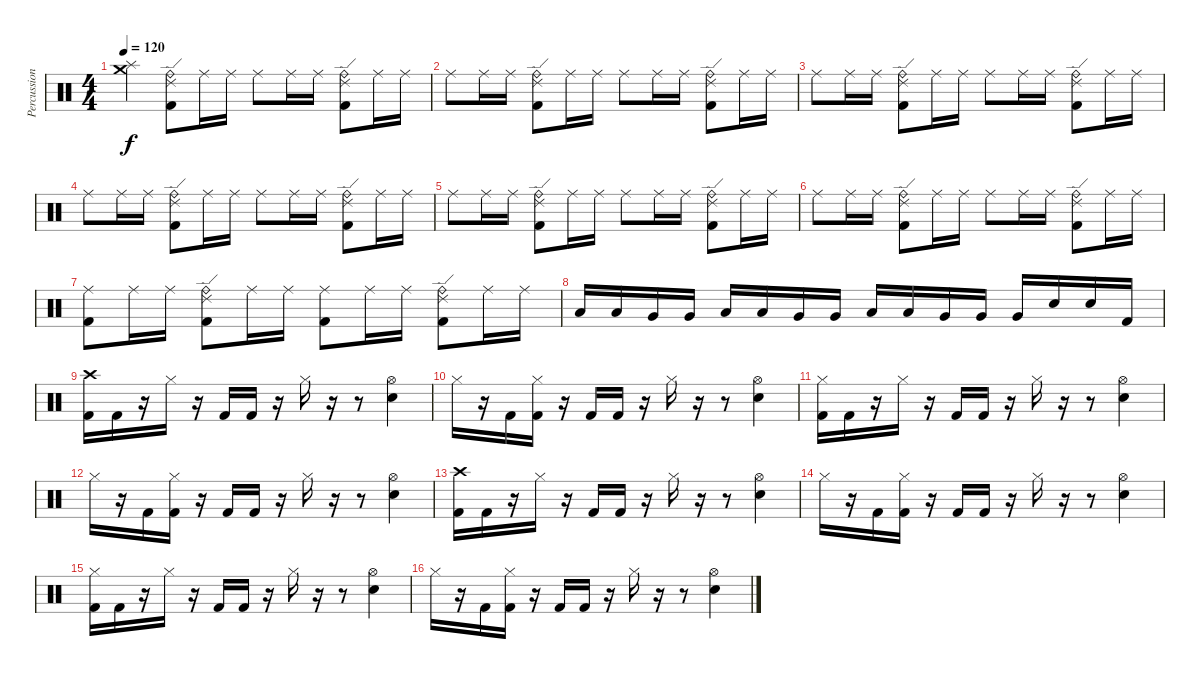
\track ("Percussion" "Percussion") {instrument percussion}
\staff {score}
\articulation defaults
\ts (4 4)
\tempo 120
\clef neutral
\ks c
("Crash medium (hit)" "Splash (hit)").4{dy f} ("Ride (edge) 2" "Ride (bell)" "Kick (hit) 2").8 "Ride (middle)".16 "Ride (middle)".16 "Ride (middle)".8 "Ride (middle)".16 "Ride (middle)".16 ("Ride (edge) 2" "Ride (bell)" "Kick (hit) 2").8 "Ride (middle)".16 "Ride (middle)".16 |
"Ride (middle)".8 "Ride (middle)".16 "Ride (middle)".16 ("Ride (edge) 2" "Ride (bell)" "Kick (hit) 2").8 "Ride (middle)".16 "Ride (middle)".16 "Ride (middle)".8 "Ride (middle)".16 "Ride (middle)".16 ("Ride (edge) 2" "Ride (bell)" "Kick (hit) 2").8 "Ride (middle)".16 "Ride (middle)".16 |
"Ride (middle)".8 "Ride (middle)".16 "Ride (middle)".16 ("Ride (edge) 2" "Ride (bell)" "Kick (hit) 2").8 "Ride (middle)".16 "Ride (middle)".16 "Ride (middle)".8 "Ride (middle)".16 "Ride (middle)".16 ("Ride (edge) 2" "Ride (bell)" "Kick (hit) 2").8 "Ride (middle)".16 "Ride (middle)".16 |
"Ride (middle)".8 "Ride (middle)".16 "Ride (middle)".16 ("Ride (edge) 2" "Ride (bell)" "Kick (hit) 2").8 "Ride (middle)".16 "Ride (middle)".16 "Ride (middle)".8 "Ride (middle)".16 "Ride (middle)".16 ("Ride (edge) 2" "Ride (bell)" "Kick (hit) 2").8 "Ride (middle)".16 "Ride (middle)".16 |
"Ride (middle)".8 "Ride (middle)".16 "Ride (middle)".16 ("Ride (edge) 2" "Ride (bell)" "Kick (hit) 2").8 "Ride (middle)".16 "Ride (middle)".16 "Ride (middle)".8 "Ride (middle)".16 "Ride (middle)".16 ("Ride (edge) 2" "Ride (bell)" "Kick (hit) 2").8 "Ride (middle)".16 "Ride (middle)".16 |
"Ride (middle)".8 "Ride (middle)".16 "Ride (middle)".16 ("Ride (edge) 2" "Ride (bell)" "Kick (hit) 2").8 "Ride (middle)".16 "Ride (middle)".16 "Ride (middle)".8 "Ride (middle)".16 "Ride (middle)".16 ("Ride (edge) 2" "Ride (bell)" "Kick (hit) 2").8 "Ride (middle)".16 "Ride (middle)".16 |
("Ride (middle)" "Kick (hit) 2").8 "Ride (middle)".16 "Ride (middle)".16 ("Ride (edge) 2" "Ride (bell)" "Kick (hit) 2").8 "Ride (middle)".16 "Ride (middle)".16 ("Ride (middle)" "Kick (hit) 2").8 "Ride (middle)".16 "Ride (middle)".16 ("Ride (edge) 2" "Ride (bell)" "Kick (hit) 2").8 "Ride (middle)".16 "Ride (middle)".16 |
"Low Tom (hit)".16 "Low Tom (hit)".16 "Very Low Tom (hit)".16 "Very Low Tom (hit)".16 "Low Floor Tom (hit)".16 "Low Floor Tom (hit)".16 "Very Low Tom (hit)".16 "Very Low Tom (hit)".16 "Low Floor Tom (hit)".16 "Low Floor Tom (hit)".16 "Very Low Tom (hit)".16 "Very Low Tom (hit)".16 "Very Low Tom (hit)".16 "Electric Snare (hit)".16 "Electric Snare (hit)".16 "Kick (hit) 2".16 |
("Crash high (hit)" "Kick (hit) 2").16 "Kick (hit) 2".16 r.16 "Hi-Hat (closed)".16 r.16 "Kick (hit) 2".16 "Kick (hit) 2".16 r.16 "Hi-Hat (closed)".16 r.16 r.8 ("Hi-Hat (open)" "Electric Snare (hit)").4 |
"Hi-Hat (closed)".16 r.16 "Kick (hit) 2".16 ("Hi-Hat (closed)" "Kick (hit) 2").16 r.16 "Kick (hit) 2".16 "Kick (hit) 2".16 r.16 "Hi-Hat (closed)".16 r.16 r.8 ("Hi-Hat (open)" "Electric Snare (hit)").4 |
("Hi-Hat (closed)" "Kick (hit) 2").16 "Kick (hit) 2".16 r.16 "Hi-Hat (closed)".16 r.16 "Kick (hit) 2".16 "Kick (hit) 2".16 r.16 "Hi-Hat (closed)".16 r.16 r.8 ("Hi-Hat (open)" "Electric Snare (hit)").4 |
"Hi-Hat (closed)".16 r.16 "Kick (hit) 2".16 ("Hi-Hat (closed)" "Kick (hit) 2").16 r.16 "Kick (hit) 2".16 "Kick (hit) 2".16 r.16 "Hi-Hat (closed)".16 r.16 r.8 ("Hi-Hat (open)" "Electric Snare (hit)").4 |
("Crash high (hit)" "Kick (hit) 2").16 "Kick (hit) 2".16 r.16 "Hi-Hat (closed)".16 r.16 "Kick (hit) 2".16 "Kick (hit) 2".16 r.16 "Hi-Hat (closed)".16 r.16 r.8 ("Hi-Hat (open)" "Electric Snare (hit)").4 |
"Hi-Hat (closed)".16 r.16 "Kick (hit) 2".16 ("Hi-Hat (closed)" "Kick (hit) 2").16 r.16 "Kick (hit) 2".16 "Kick (hit) 2".16 r.16 "Hi-Hat (closed)".16 r.16 r.8 ("Hi-Hat (open)" "Electric Snare (hit)").4 |
("Hi-Hat (closed)" "Kick (hit) 2").16 "Kick (hit) 2".16 r.16 "Hi-Hat (closed)".16 r.16 "Kick (hit) 2".16 "Kick (hit) 2".16 r.16 "Hi-Hat (closed)".16 r.16 r.8 ("Hi-Hat (open)" "Electric Snare (hit)").4 |
"Hi-Hat (closed)".16 r.16 "Kick (hit) 2".16 ("Hi-Hat (closed)" "Kick (hit) 2").16 r.16 "Kick (hit) 2".16 "Kick (hit) 2".16 r.16 "Hi-Hat (closed)".16 r.16 r.8 ("Hi-Hat (open)" "Electric Snare (hit)").4
